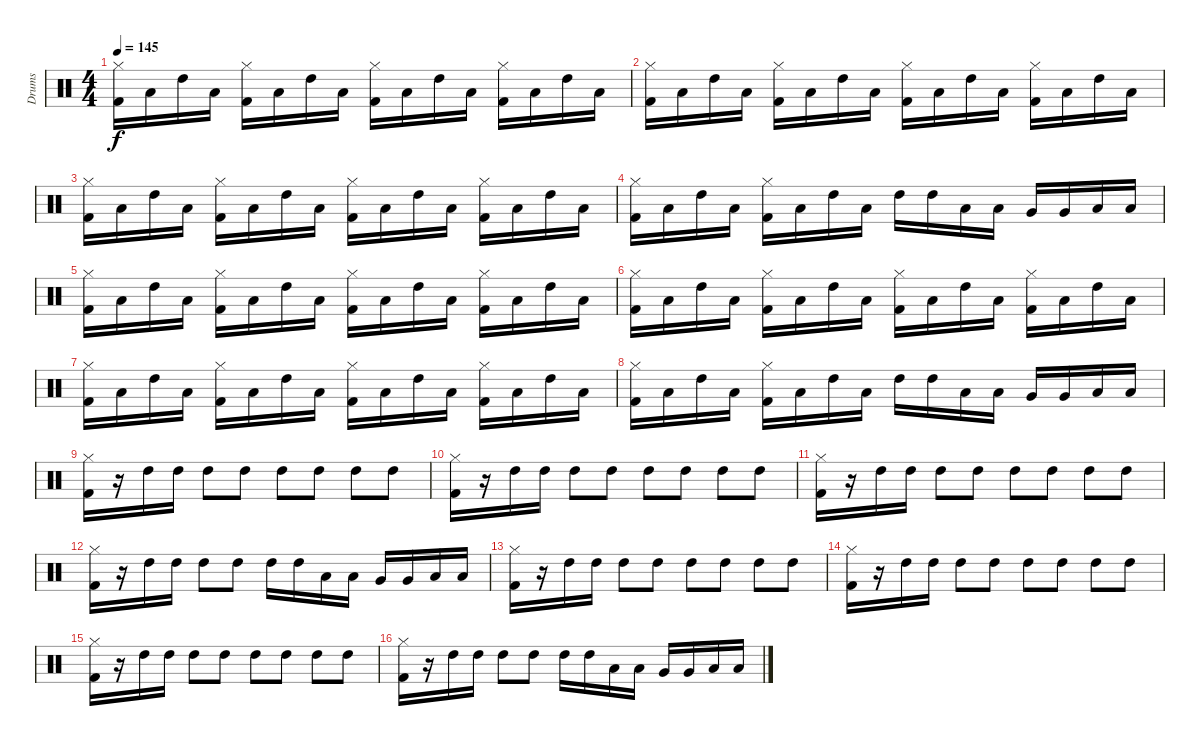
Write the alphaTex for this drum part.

\track ("Drums" "Drums") {instrument percussion}
\staff {score}
\articulation defaults
\ts (4 4)
\tempo 145
\clef neutral
\ks c
("Hi-Hat (closed)" "Kick (hit) 2").16{dy f} "Low Tom (hit)".16 "High Tom (hit)".16 "Low Tom (hit)".16 ("Hi-Hat (closed)" "Kick (hit) 2").16 "Low Tom (hit)".16 "High Tom (hit)".16 "Low Tom (hit)".16 ("Hi-Hat (closed)" "Kick (hit) 2").16 "Low Tom (hit)".16 "High Tom (hit)".16 "Low Tom (hit)".16 ("Hi-Hat (closed)" "Kick (hit) 2").16 "Low Tom (hit)".16 "High Tom (hit)".16 "Low Tom (hit)".16 |
("Hi-Hat (closed)" "Kick (hit) 2").16 "Low Tom (hit)".16 "High Tom (hit)".16 "Low Tom (hit)".16 ("Hi-Hat (closed)" "Kick (hit) 2").16 "Low Tom (hit)".16 "High Tom (hit)".16 "Low Tom (hit)".16 ("Hi-Hat (closed)" "Kick (hit) 2").16 "Low Tom (hit)".16 "High Tom (hit)".16 "Low Tom (hit)".16 ("Hi-Hat (closed)" "Kick (hit) 2").16 "Low Tom (hit)".16 "High Tom (hit)".16 "Low Tom (hit)".16 |
("Hi-Hat (closed)" "Kick (hit) 2").16 "Low Tom (hit)".16 "High Tom (hit)".16 "Low Tom (hit)".16 ("Hi-Hat (closed)" "Kick (hit) 2").16 "Low Tom (hit)".16 "High Tom (hit)".16 "Low Tom (hit)".16 ("Hi-Hat (closed)" "Kick (hit) 2").16 "Low Tom (hit)".16 "High Tom (hit)".16 "Low Tom (hit)".16 ("Hi-Hat (closed)" "Kick (hit) 2").16 "Low Tom (hit)".16 "High Tom (hit)".16 "Low Tom (hit)".16 |
("Hi-Hat (closed)" "Kick (hit) 2").16 "Low Tom (hit)".16 "High Tom (hit)".16 "Low Tom (hit)".16 ("Hi-Hat (closed)" "Kick (hit) 2").16 "Low Tom (hit)".16 "High Tom (hit)".16 "Low Tom (hit)".16 "High Tom (hit)".16 "High Tom (hit)".16 "Low Tom (hit)".16 "Low Tom (hit)".16 "Very Low Tom (hit)".16 "Very Low Tom (hit)".16 "Low Floor Tom (hit)".16 "Low Floor Tom (hit)".16 |
("Hi-Hat (closed)" "Kick (hit) 2").16 "Low Tom (hit)".16 "High Tom (hit)".16 "Low Tom (hit)".16 ("Hi-Hat (closed)" "Kick (hit) 2").16 "Low Tom (hit)".16 "High Tom (hit)".16 "Low Tom (hit)".16 ("Hi-Hat (closed)" "Kick (hit) 2").16 "Low Tom (hit)".16 "High Tom (hit)".16 "Low Tom (hit)".16 ("Hi-Hat (closed)" "Kick (hit) 2").16 "Low Tom (hit)".16 "High Tom (hit)".16 "Low Tom (hit)".16 |
("Hi-Hat (closed)" "Kick (hit) 2").16 "Low Tom (hit)".16 "High Tom (hit)".16 "Low Tom (hit)".16 ("Hi-Hat (closed)" "Kick (hit) 2").16 "Low Tom (hit)".16 "High Tom (hit)".16 "Low Tom (hit)".16 ("Hi-Hat (closed)" "Kick (hit) 2").16 "Low Tom (hit)".16 "High Tom (hit)".16 "Low Tom (hit)".16 ("Hi-Hat (closed)" "Kick (hit) 2").16 "Low Tom (hit)".16 "High Tom (hit)".16 "Low Tom (hit)".16 |
("Hi-Hat (closed)" "Kick (hit) 2").16 "Low Tom (hit)".16 "High Tom (hit)".16 "Low Tom (hit)".16 ("Hi-Hat (closed)" "Kick (hit) 2").16 "Low Tom (hit)".16 "High Tom (hit)".16 "Low Tom (hit)".16 ("Hi-Hat (closed)" "Kick (hit) 2").16 "Low Tom (hit)".16 "High Tom (hit)".16 "Low Tom (hit)".16 ("Hi-Hat (closed)" "Kick (hit) 2").16 "Low Tom (hit)".16 "High Tom (hit)".16 "Low Tom (hit)".16 |
("Hi-Hat (closed)" "Kick (hit) 2").16 "Low Tom (hit)".16 "High Tom (hit)".16 "Low Tom (hit)".16 ("Hi-Hat (closed)" "Kick (hit) 2").16 "Low Tom (hit)".16 "High Tom (hit)".16 "Low Tom (hit)".16 "High Tom (hit)".16 "High Tom (hit)".16 "Low Tom (hit)".16 "Low Tom (hit)".16 "Very Low Tom (hit)".16 "Very Low Tom (hit)".16 "Low Floor Tom (hit)".16 "Low Floor Tom (hit)".16 |
("Hi-Hat (closed)" "Kick (hit) 2").16 r.16 "High Tom (hit)".16 "High Tom (hit)".16 "High Tom (hit)".8 "High Tom (hit)".8 "High Tom (hit)".8 "High Tom (hit)".8 "High Tom (hit)".8 "High Tom (hit)".8 |
("Hi-Hat (closed)" "Kick (hit) 2").16 r.16 "High Tom (hit)".16 "High Tom (hit)".16 "High Tom (hit)".8 "High Tom (hit)".8 "High Tom (hit)".8 "High Tom (hit)".8 "High Tom (hit)".8 "High Tom (hit)".8 |
("Hi-Hat (closed)" "Kick (hit) 2").16 r.16 "High Tom (hit)".16 "High Tom (hit)".16 "High Tom (hit)".8 "High Tom (hit)".8 "High Tom (hit)".8 "High Tom (hit)".8 "High Tom (hit)".8 "High Tom (hit)".8 |
("Hi-Hat (closed)" "Kick (hit) 2").16 r.16 "High Tom (hit)".16 "High Tom (hit)".16 "High Tom (hit)".8 "High Tom (hit)".8 "High Tom (hit)".16 "High Tom (hit)".16 "Low Tom (hit)".16 "Low Tom (hit)".16 "Very Low Tom (hit)".16 "Very Low Tom (hit)".16 "Low Floor Tom (hit)".16 "Low Floor Tom (hit)".16 |
("Hi-Hat (closed)" "Kick (hit) 2").16 r.16 "High Tom (hit)".16 "High Tom (hit)".16 "High Tom (hit)".8 "High Tom (hit)".8 "High Tom (hit)".8 "High Tom (hit)".8 "High Tom (hit)".8 "High Tom (hit)".8 |
("Hi-Hat (closed)" "Kick (hit) 2").16 r.16 "High Tom (hit)".16 "High Tom (hit)".16 "High Tom (hit)".8 "High Tom (hit)".8 "High Tom (hit)".8 "High Tom (hit)".8 "High Tom (hit)".8 "High Tom (hit)".8 |
("Hi-Hat (closed)" "Kick (hit) 2").16 r.16 "High Tom (hit)".16 "High Tom (hit)".16 "High Tom (hit)".8 "High Tom (hit)".8 "High Tom (hit)".8 "High Tom (hit)".8 "High Tom (hit)".8 "High Tom (hit)".8 |
("Hi-Hat (closed)" "Kick (hit) 2").16 r.16 "High Tom (hit)".16 "High Tom (hit)".16 "High Tom (hit)".8 "High Tom (hit)".8 "High Tom (hit)".16 "High Tom (hit)".16 "Low Tom (hit)".16 "Low Tom (hit)".16 "Very Low Tom (hit)".16 "Very Low Tom (hit)".16 "Low Floor Tom (hit)".16 "Low Floor Tom (hit)".16
